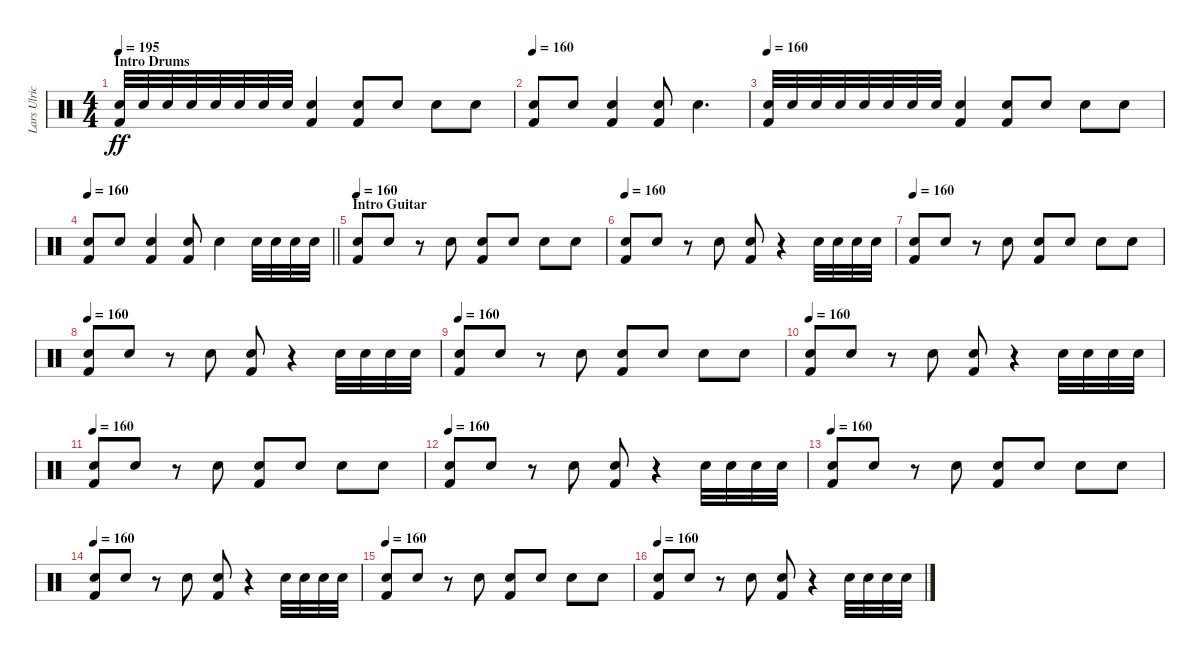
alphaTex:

\track ("Lars Ulrich" "Lars Ulric") {instrument percussion}
\staff {score}
\articulation defaults
\ts (4 4)
\section ("" "Intro Drums")
\tempo 195
\tempo 160
\tempo 195
\clef neutral
\ks c
("Kick (hit) 2" "Snare (hit) 2").32{dy ff} "Snare (hit) 2".32 "Snare (hit) 2".32 "Snare (hit) 2".32 "Snare (hit) 2".32 "Snare (hit) 2".32 "Snare (hit) 2".32 "Snare (hit) 2".32 ("Kick (hit) 2" "Snare (hit) 2").4 ("Kick (hit) 2" "Snare (hit) 2").8 "Snare (hit) 2".8 "Snare (hit) 2".8 "Snare (hit) 2".8 |
\tempo 160
("Kick (hit) 2" "Snare (hit) 2").8 "Snare (hit) 2".8 ("Kick (hit) 2" "Snare (hit) 2").4 ("Kick (hit) 2" "Snare (hit) 2").8 "Snare (hit) 2".4{d} |
\tempo 160
("Kick (hit) 2" "Snare (hit) 2").32 "Snare (hit) 2".32 "Snare (hit) 2".32 "Snare (hit) 2".32 "Snare (hit) 2".32 "Snare (hit) 2".32 "Snare (hit) 2".32 "Snare (hit) 2".32 ("Kick (hit) 2" "Snare (hit) 2").4 ("Kick (hit) 2" "Snare (hit) 2").8 "Snare (hit) 2".8 "Snare (hit) 2".8 "Snare (hit) 2".8 |
\tempo 160
\barLineRight lightlight
("Kick (hit) 2" "Snare (hit) 2").8 "Snare (hit) 2".8 ("Kick (hit) 2" "Snare (hit) 2").4 ("Kick (hit) 2" "Snare (hit) 2").8 "Snare (hit) 2".4 "Snare (hit) 2".32 "Snare (hit) 2".32 "Snare (hit) 2".32 "Snare (hit) 2".32 |
\section ("" "Intro Guitar")
\tempo 160
("Kick (hit) 2" "Snare (hit) 2").8 "Snare (hit) 2".8 r.8 "Snare (hit) 2".8 ("Kick (hit) 2" "Snare (hit) 2").8 "Snare (hit) 2".8 "Snare (hit) 2".8 "Snare (hit) 2".8 |
\tempo 160
("Kick (hit) 2" "Snare (hit) 2").8 "Snare (hit) 2".8 r.8 "Snare (hit) 2".8 ("Kick (hit) 2" "Snare (hit) 2").8 r.4 "Snare (hit) 2".32 "Snare (hit) 2".32 "Snare (hit) 2".32 "Snare (hit) 2".32 |
\tempo 160
("Kick (hit) 2" "Snare (hit) 2").8 "Snare (hit) 2".8 r.8 "Snare (hit) 2".8 ("Kick (hit) 2" "Snare (hit) 2").8 "Snare (hit) 2".8 "Snare (hit) 2".8 "Snare (hit) 2".8 |
\tempo 160
("Kick (hit) 2" "Snare (hit) 2").8 "Snare (hit) 2".8 r.8 "Snare (hit) 2".8 ("Kick (hit) 2" "Snare (hit) 2").8 r.4 "Snare (hit) 2".32 "Snare (hit) 2".32 "Snare (hit) 2".32 "Snare (hit) 2".32 |
\tempo 160
("Kick (hit) 2" "Snare (hit) 2").8 "Snare (hit) 2".8 r.8 "Snare (hit) 2".8 ("Kick (hit) 2" "Snare (hit) 2").8 "Snare (hit) 2".8 "Snare (hit) 2".8 "Snare (hit) 2".8 |
\tempo 160
("Kick (hit) 2" "Snare (hit) 2").8 "Snare (hit) 2".8 r.8 "Snare (hit) 2".8 ("Kick (hit) 2" "Snare (hit) 2").8 r.4 "Snare (hit) 2".32 "Snare (hit) 2".32 "Snare (hit) 2".32 "Snare (hit) 2".32 |
\tempo 160
("Kick (hit) 2" "Snare (hit) 2").8 "Snare (hit) 2".8 r.8 "Snare (hit) 2".8 ("Kick (hit) 2" "Snare (hit) 2").8 "Snare (hit) 2".8 "Snare (hit) 2".8 "Snare (hit) 2".8 |
\tempo 160
("Kick (hit) 2" "Snare (hit) 2").8 "Snare (hit) 2".8 r.8 "Snare (hit) 2".8 ("Kick (hit) 2" "Snare (hit) 2").8 r.4 "Snare (hit) 2".32 "Snare (hit) 2".32 "Snare (hit) 2".32 "Snare (hit) 2".32 |
\tempo 160
("Kick (hit) 2" "Snare (hit) 2").8 "Snare (hit) 2".8 r.8 "Snare (hit) 2".8 ("Kick (hit) 2" "Snare (hit) 2").8 "Snare (hit) 2".8 "Snare (hit) 2".8 "Snare (hit) 2".8 |
\tempo 160
("Kick (hit) 2" "Snare (hit) 2").8 "Snare (hit) 2".8 r.8 "Snare (hit) 2".8 ("Kick (hit) 2" "Snare (hit) 2").8 r.4 "Snare (hit) 2".32 "Snare (hit) 2".32 "Snare (hit) 2".32 "Snare (hit) 2".32 |
\tempo 160
("Kick (hit) 2" "Snare (hit) 2").8 "Snare (hit) 2".8 r.8 "Snare (hit) 2".8 ("Kick (hit) 2" "Snare (hit) 2").8 "Snare (hit) 2".8 "Snare (hit) 2".8 "Snare (hit) 2".8 |
\tempo 160
("Kick (hit) 2" "Snare (hit) 2").8 "Snare (hit) 2".8 r.8 "Snare (hit) 2".8 ("Kick (hit) 2" "Snare (hit) 2").8 r.4 "Snare (hit) 2".32 "Snare (hit) 2".32 "Snare (hit) 2".32 "Snare (hit) 2".32
